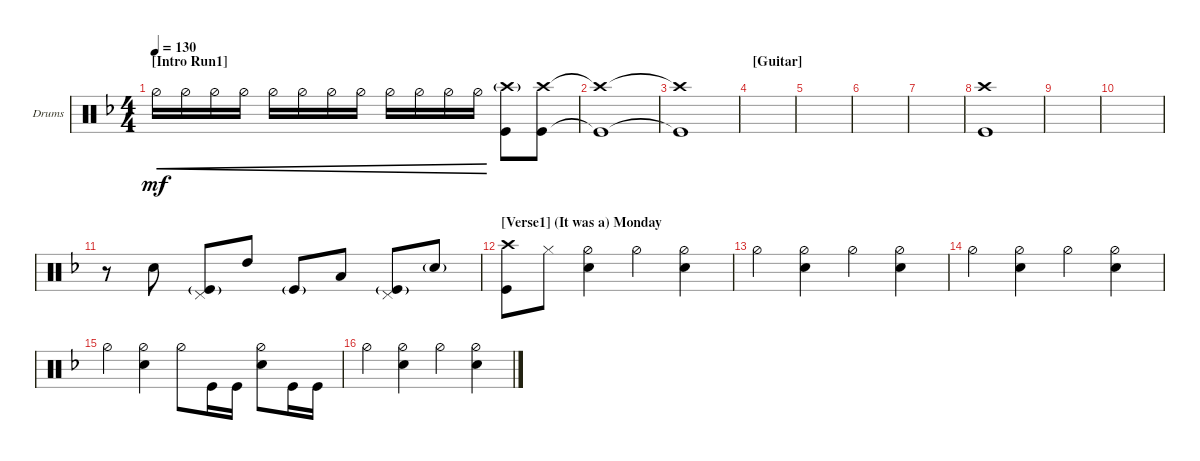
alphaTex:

\defaultSystemsLayout 4
\bracketExtendMode groupsimilarinstruments
\firstSystemTrackNameOrientation horizontal
\otherSystemsTrackNameOrientation horizontal
\track ("Drumkit" "Drums") {instrument percussion}
\staff {score}
\articulation defaults
\ts (4 4)
\section ("" "[Intro Run1]")
\tempo 130
\clef neutral
\ks dminor "Hi-Hat (half)".16{cre dy mf} "Hi-Hat (half)".16{cre} "Hi-Hat (half)".16{cre} "Hi-Hat (half)".16{cre} "Hi-Hat (half)".16{cre} "Hi-Hat (half)".16{cre} "Hi-Hat (half)".16{cre} "Hi-Hat (half)".16{cre} "Hi-Hat (half)".16{cre} "Hi-Hat (half)".16{cre} "Hi-Hat (half)".16{cre} "Hi-Hat (half)".16{cre}
("Kick (hit)" "Crash high (hit)"{g}).8 ("Kick (hit)" "Crash high (hit)").8 |
("Kick (hit)"{t} "Crash high (hit)"{t}).1 |
("Kick (hit)"{t} "Crash high (hit)"{t}).1 |
\section ("" "[Guitar]")
|
|
|
|
("Kick (hit)" "Crash high (hit)").1 |
|
|
r.8 "Snare (hit) 2".8 ("Kick (hit)"{g} "Pedal Hi-Hat (hit)").8 "High Tom (hit)".8 "Kick (hit)"{g}.8 "Low Tom (hit)".8 ("Kick (hit)"{g} "Pedal Hi-Hat (hit)").8 "Snare (hit) 2"{g}.8 |
\section ("" "[Verse1] (It was a) Monday")
("Crash high (hit)" "Kick (hit)").8 "Hi-Hat (closed)".8 ("Hi-Hat (half)" "Snare (hit) 2").4 "Hi-Hat (half)".4 ("Hi-Hat (half)" "Snare (hit) 2").4 |
"Hi-Hat (half)".4 ("Hi-Hat (half)" "Snare (hit) 2").4 "Hi-Hat (half)".4 ("Hi-Hat (half)" "Snare (hit) 2").4 |
"Hi-Hat (half)".4 ("Hi-Hat (half)" "Snare (hit) 2").4 "Hi-Hat (half)".4 ("Hi-Hat (half)" "Snare (hit) 2").4 |
"Hi-Hat (half)".4 ("Hi-Hat (half)" "Snare (hit) 2").4 "Hi-Hat (half)".8 "Kick (hit)".16 "Kick (hit)".16 ("Hi-Hat (half)" "Snare (hit) 2").8 "Kick (hit)".16 "Kick (hit)".16 |
"Hi-Hat (half)".4 ("Hi-Hat (half)" "Snare (hit) 2").4 "Hi-Hat (half)".4 ("Hi-Hat (half)" "Snare (hit) 2").4
